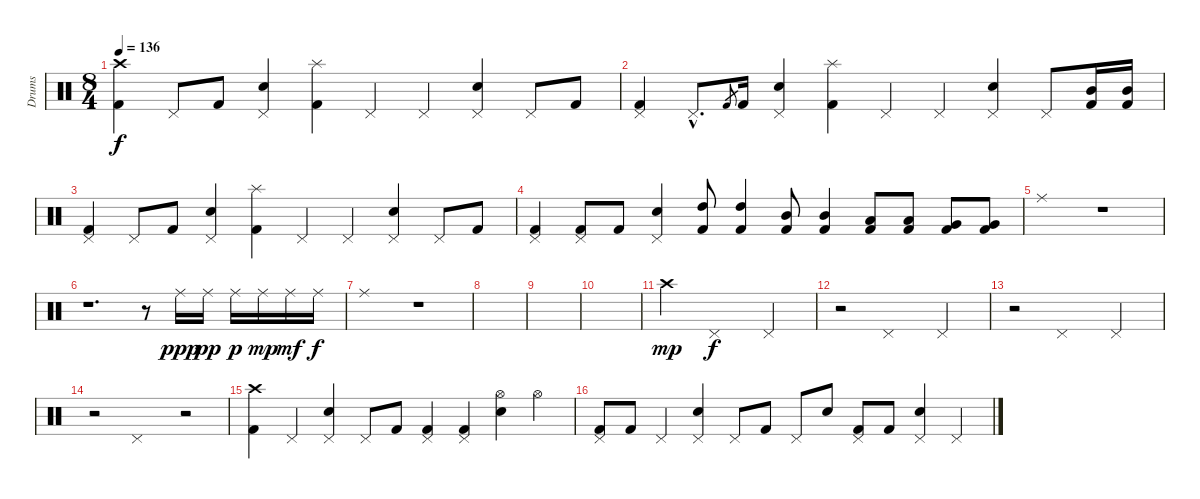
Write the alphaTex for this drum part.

\track ("Drums" "Drums") {instrument percussion}
\staff {score}
\articulation defaults
\ts (8 4)
\tempo 136
\clef neutral
\ks c
("Crash high (hit)" "Kick (hit) 2").4{dy f} "Pedal Hi-Hat (hit)".8 "Kick (hit) 2".8 ("Pedal Hi-Hat (hit)" "Snare (hit) 2").4 ("Splash (hit)" "Kick (hit) 2").4 "Pedal Hi-Hat (hit)".4 "Pedal Hi-Hat (hit)".4 ("Pedal Hi-Hat (hit)" "Snare (hit) 2").4 "Pedal Hi-Hat (hit)".8 "Kick (hit) 2".8 |
("Pedal Hi-Hat (hit)" "Kick (hit) 2").4 "Pedal Hi-Hat (hit)"{hac}.8{d} "Kick (hit) 2".8{gr} "Kick (hit) 2".16 ("Pedal Hi-Hat (hit)" "Snare (hit) 2").4 ("Splash (hit)" "Kick (hit) 2").4 "Pedal Hi-Hat (hit)".4 "Pedal Hi-Hat (hit)".4 ("Pedal Hi-Hat (hit)" "Snare (hit) 2").4 "Pedal Hi-Hat (hit)".8 ("Mid Tom (hit)" "Kick (hit) 2").16 ("Mid Tom (hit)" "Kick (hit) 2").16 |
("Pedal Hi-Hat (hit)" "Kick (hit) 2").4 "Pedal Hi-Hat (hit)".8 "Kick (hit) 2".8 ("Pedal Hi-Hat (hit)" "Snare (hit) 2").4 ("Splash (hit)" "Kick (hit) 2").4 "Pedal Hi-Hat (hit)".4 "Pedal Hi-Hat (hit)".4 ("Pedal Hi-Hat (hit)" "Snare (hit) 2").4 "Pedal Hi-Hat (hit)".8 "Kick (hit) 2".8 |
("Pedal Hi-Hat (hit)" "Kick (hit) 2").4 ("Pedal Hi-Hat (hit)" "Kick (hit) 2").8 "Kick (hit) 2".8 ("Pedal Hi-Hat (hit)" "Snare (hit) 2").4 ("High Tom (hit)" "Kick (hit) 2").8 ("High Tom (hit)" "Kick (hit) 2").4 ("Mid Tom (hit)" "Kick (hit) 2").8 ("Mid Tom (hit)" "Kick (hit) 2").4 ("Low Tom (hit)" "Kick (hit) 2").8 ("Low Tom (hit)" "Kick (hit) 2").8 ("Very Low Tom (hit)" "Kick (hit) 2").8 ("Very Low Tom (hit)" "Kick (hit) 2").8 |
"Ride (middle)".1 r.1 |
r.1{d} r.8 "Ride (middle)".16{dy ppp} "Ride (middle)".16{dy pp} "Ride (middle)".16{dy p} "Ride (middle)".16{dy mp} "Ride (middle)".16{dy mf} "Ride (middle)".16{dy f} |
"Ride (middle)".1 r.1 |
|
|
|
"Crash high (hit)".2{dy mp} "Pedal Hi-Hat (hit)".1{dy f} "Pedal Hi-Hat (hit)".2 |
r.2 "Pedal Hi-Hat (hit)".1 "Pedal Hi-Hat (hit)".2 |
r.2 "Pedal Hi-Hat (hit)".1 "Pedal Hi-Hat (hit)".2 |
r.2 "Pedal Hi-Hat (hit)".1 r.2 |
("Crash high (hit)" "Kick (hit) 2").4 "Pedal Hi-Hat (hit)".4 ("Pedal Hi-Hat (hit)" "Snare (hit) 2").4 "Pedal Hi-Hat (hit)".8 "Kick (hit) 2".8 ("Pedal Hi-Hat (hit)" "Kick (hit) 2").4 ("Pedal Hi-Hat (hit)" "Kick (hit) 2").4 ("Hi-Hat (open)" "Snare (hit) 2").4 "Hi-Hat (open)".4 |
("Pedal Hi-Hat (hit)" "Kick (hit) 2").8 "Kick (hit) 2".8 "Pedal Hi-Hat (hit)".4 ("Pedal Hi-Hat (hit)" "Snare (hit) 2").4 "Pedal Hi-Hat (hit)".8 "Kick (hit) 2".8 "Pedal Hi-Hat (hit)".8 "Snare (hit) 2".8 ("Pedal Hi-Hat (hit)" "Kick (hit) 2").8 "Kick (hit) 2".8 ("Pedal Hi-Hat (hit)" "Snare (hit) 2").4 "Pedal Hi-Hat (hit)".4
